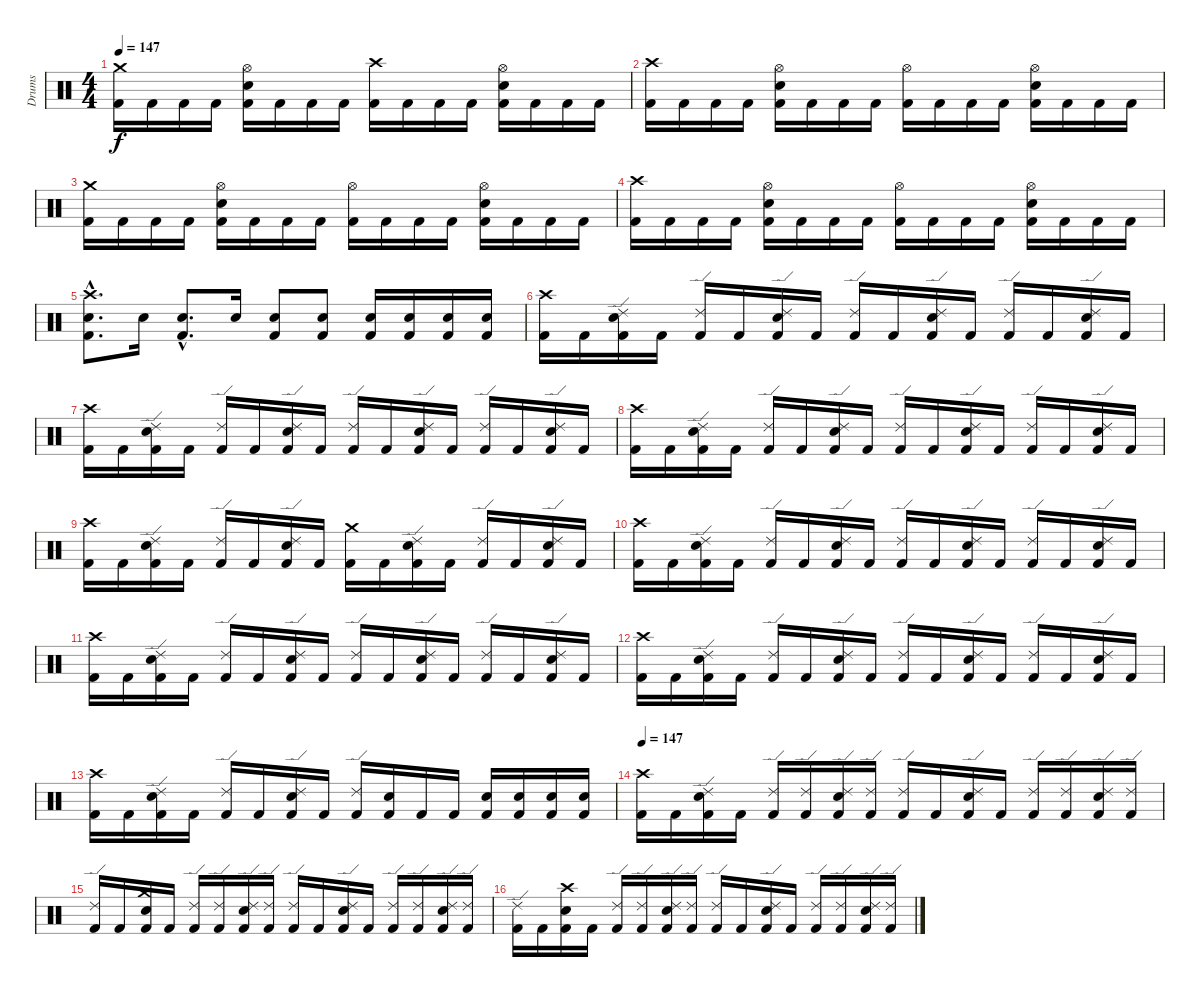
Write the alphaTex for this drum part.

\track ("Drums" "Drums") {instrument percussion}
\staff {score}
\articulation defaults
\ts (4 4)
\tempo 147
\clef neutral
\ks c
("Kick (hit) 2" "Crash medium (hit)").16{dy f} "Kick (hit) 2".16 "Kick (hit) 2".16 "Kick (hit) 2".16 ("Kick (hit) 2" "Electric Snare (hit)" "Hi-Hat (open)").16 "Kick (hit) 2".16 "Kick (hit) 2".16 "Kick (hit) 2".16 ("Kick (hit) 2" "Crash high (hit)").16 "Kick (hit) 2".16 "Kick (hit) 2".16 "Kick (hit) 2".16 ("Kick (hit) 2" "Electric Snare (hit)" "Hi-Hat (open)").16 "Kick (hit) 2".16 "Kick (hit) 2".16 "Kick (hit) 2".16 |
("Kick (hit) 2" "Crash high (hit)").16 "Kick (hit) 2".16 "Kick (hit) 2".16 "Kick (hit) 2".16 ("Kick (hit) 2" "Electric Snare (hit)" "Hi-Hat (open)").16 "Kick (hit) 2".16 "Kick (hit) 2".16 "Kick (hit) 2".16 ("Kick (hit) 2" "Hi-Hat (open)").16 "Kick (hit) 2".16 "Kick (hit) 2".16 "Kick (hit) 2".16 ("Kick (hit) 2" "Electric Snare (hit)" "Hi-Hat (open)").16 "Kick (hit) 2".16 "Kick (hit) 2".16 "Kick (hit) 2".16 |
("Kick (hit) 2" "Crash medium (hit)").16 "Kick (hit) 2".16 "Kick (hit) 2".16 "Kick (hit) 2".16 ("Kick (hit) 2" "Electric Snare (hit)" "Hi-Hat (open)").16 "Kick (hit) 2".16 "Kick (hit) 2".16 "Kick (hit) 2".16 ("Kick (hit) 2" "Hi-Hat (open)").16 "Kick (hit) 2".16 "Kick (hit) 2".16 "Kick (hit) 2".16 ("Kick (hit) 2" "Electric Snare (hit)" "Hi-Hat (open)").16 "Kick (hit) 2".16 "Kick (hit) 2".16 "Kick (hit) 2".16 |
("Kick (hit) 2" "Crash high (hit)").16 "Kick (hit) 2".16 "Kick (hit) 2".16 "Kick (hit) 2".16 ("Kick (hit) 2" "Electric Snare (hit)" "Hi-Hat (open)").16 "Kick (hit) 2".16 "Kick (hit) 2".16 "Kick (hit) 2".16 ("Kick (hit) 2" "Hi-Hat (open)").16 "Kick (hit) 2".16 "Kick (hit) 2".16 "Kick (hit) 2".16 ("Kick (hit) 2" "Electric Snare (hit)" "Hi-Hat (open)").16 "Kick (hit) 2".16 "Kick (hit) 2".16 "Kick (hit) 2".16 |
("Kick (hit) 2"{hac} "Electric Snare (hit)"{hac} "Crash high (hit)"{hac}).8{d} "Electric Snare (hit)".16 ("Kick (hit) 2"{hac} "Electric Snare (hit)"{hac}).8{d} "Electric Snare (hit)".16 ("Kick (hit) 2" "Electric Snare (hit)").8 ("Kick (hit) 2" "Electric Snare (hit)").8 ("Kick (hit) 2" "Electric Snare (hit)").16 ("Kick (hit) 2" "Electric Snare (hit)").16 ("Kick (hit) 2" "Electric Snare (hit)").16 ("Kick (hit) 2" "Electric Snare (hit)").16 |
("Kick (hit) 2" "Crash high (hit)").16 "Kick (hit) 2".16 ("Kick (hit) 2" "Electric Snare (hit)" "Ride (edge) 2").16 "Kick (hit) 2".16 ("Kick (hit) 2" "Ride (edge) 2").16 "Kick (hit) 2".16 ("Kick (hit) 2" "Electric Snare (hit)" "Ride (edge) 2").16 "Kick (hit) 2".16 ("Kick (hit) 2" "Ride (edge) 2").16 "Kick (hit) 2".16 ("Kick (hit) 2" "Electric Snare (hit)" "Ride (edge) 2").16 "Kick (hit) 2".16 ("Kick (hit) 2" "Ride (edge) 2").16 "Kick (hit) 2".16 ("Kick (hit) 2" "Electric Snare (hit)" "Ride (edge) 2").16 "Kick (hit) 2".16 |
("Kick (hit) 2" "Crash high (hit)").16 "Kick (hit) 2".16 ("Kick (hit) 2" "Electric Snare (hit)" "Ride (edge) 2").16 "Kick (hit) 2".16 ("Kick (hit) 2" "Ride (edge) 2").16 "Kick (hit) 2".16 ("Kick (hit) 2" "Electric Snare (hit)" "Ride (edge) 2").16 "Kick (hit) 2".16 ("Kick (hit) 2" "Ride (edge) 2").16 "Kick (hit) 2".16 ("Kick (hit) 2" "Electric Snare (hit)" "Ride (edge) 2").16 "Kick (hit) 2".16 ("Kick (hit) 2" "Ride (edge) 2").16 "Kick (hit) 2".16 ("Kick (hit) 2" "Electric Snare (hit)" "Ride (edge) 2").16 "Kick (hit) 2".16 |
("Kick (hit) 2" "Crash high (hit)").16 "Kick (hit) 2".16 ("Kick (hit) 2" "Electric Snare (hit)" "Ride (edge) 2").16 "Kick (hit) 2".16 ("Kick (hit) 2" "Ride (edge) 2").16 "Kick (hit) 2".16 ("Kick (hit) 2" "Electric Snare (hit)" "Ride (edge) 2").16 "Kick (hit) 2".16 ("Kick (hit) 2" "Ride (edge) 2").16 "Kick (hit) 2".16 ("Kick (hit) 2" "Electric Snare (hit)" "Ride (edge) 2").16 "Kick (hit) 2".16 ("Kick (hit) 2" "Ride (edge) 2").16 "Kick (hit) 2".16 ("Kick (hit) 2" "Electric Snare (hit)" "Ride (edge) 2").16 "Kick (hit) 2".16 |
("Kick (hit) 2" "Crash high (hit)").16 "Kick (hit) 2".16 ("Kick (hit) 2" "Electric Snare (hit)" "Ride (edge) 2").16 "Kick (hit) 2".16 ("Kick (hit) 2" "Ride (edge) 2").16 "Kick (hit) 2".16 ("Kick (hit) 2" "Electric Snare (hit)" "Ride (edge) 2").16 "Kick (hit) 2".16 ("Kick (hit) 2" "Crash medium (hit)").16 "Kick (hit) 2".16 ("Kick (hit) 2" "Electric Snare (hit)" "Ride (edge) 2").16 "Kick (hit) 2".16 ("Kick (hit) 2" "Ride (edge) 2").16 "Kick (hit) 2".16 ("Kick (hit) 2" "Electric Snare (hit)" "Ride (edge) 2").16 "Kick (hit) 2".16 |
("Kick (hit) 2" "Crash high (hit)").16 "Kick (hit) 2".16 ("Kick (hit) 2" "Electric Snare (hit)" "Ride (edge) 2").16 "Kick (hit) 2".16 ("Kick (hit) 2" "Ride (edge) 2").16 "Kick (hit) 2".16 ("Kick (hit) 2" "Electric Snare (hit)" "Ride (edge) 2").16 "Kick (hit) 2".16 ("Kick (hit) 2" "Ride (edge) 2").16 "Kick (hit) 2".16 ("Kick (hit) 2" "Electric Snare (hit)" "Ride (edge) 2").16 "Kick (hit) 2".16 ("Kick (hit) 2" "Ride (edge) 2").16 "Kick (hit) 2".16 ("Kick (hit) 2" "Electric Snare (hit)" "Ride (edge) 2").16 "Kick (hit) 2".16 |
("Kick (hit) 2" "Crash high (hit)").16 "Kick (hit) 2".16 ("Kick (hit) 2" "Electric Snare (hit)" "Ride (edge) 2").16 "Kick (hit) 2".16 ("Kick (hit) 2" "Ride (edge) 2").16 "Kick (hit) 2".16 ("Kick (hit) 2" "Electric Snare (hit)" "Ride (edge) 2").16 "Kick (hit) 2".16 ("Kick (hit) 2" "Ride (edge) 2").16 "Kick (hit) 2".16 ("Kick (hit) 2" "Electric Snare (hit)" "Ride (edge) 2").16 "Kick (hit) 2".16 ("Kick (hit) 2" "Ride (edge) 2").16 "Kick (hit) 2".16 ("Kick (hit) 2" "Electric Snare (hit)" "Ride (edge) 2").16 "Kick (hit) 2".16 |
("Kick (hit) 2" "Crash high (hit)").16 "Kick (hit) 2".16 ("Kick (hit) 2" "Electric Snare (hit)" "Ride (edge) 2").16 "Kick (hit) 2".16 ("Kick (hit) 2" "Ride (edge) 2").16 "Kick (hit) 2".16 ("Kick (hit) 2" "Electric Snare (hit)" "Ride (edge) 2").16 "Kick (hit) 2".16 ("Kick (hit) 2" "Ride (edge) 2").16 "Kick (hit) 2".16 ("Kick (hit) 2" "Electric Snare (hit)" "Ride (edge) 2").16 "Kick (hit) 2".16 ("Kick (hit) 2" "Ride (edge) 2").16 "Kick (hit) 2".16 ("Kick (hit) 2" "Electric Snare (hit)" "Ride (edge) 2").16 "Kick (hit) 2".16 |
("Kick (hit) 2" "Crash high (hit)").16 "Kick (hit) 2".16 ("Kick (hit) 2" "Electric Snare (hit)" "Ride (edge) 2").16 "Kick (hit) 2".16 ("Kick (hit) 2" "Ride (edge) 2").16 "Kick (hit) 2".16 ("Kick (hit) 2" "Electric Snare (hit)" "Ride (edge) 2").16 "Kick (hit) 2".16 ("Kick (hit) 2" "Ride (edge) 2").16 ("Kick (hit) 2" "Electric Snare (hit)").16 "Kick (hit) 2".16 "Kick (hit) 2".16 ("Kick (hit) 2" "Electric Snare (hit)").16 ("Kick (hit) 2" "Electric Snare (hit)").16 ("Kick (hit) 2" "Electric Snare (hit)").16 ("Kick (hit) 2" "Electric Snare (hit)").16 |
\tempo 147
("Kick (hit) 2" "Crash high (hit)").16 "Kick (hit) 2".16 ("Kick (hit) 2" "Electric Snare (hit)" "Ride (edge) 2").16 "Kick (hit) 2".16 ("Kick (hit) 2" "Ride (edge) 2").16 ("Kick (hit) 2" "Ride (edge) 2").16 ("Kick (hit) 2" "Electric Snare (hit)" "Ride (edge) 2").16 ("Kick (hit) 2" "Ride (edge) 2").16 ("Kick (hit) 2" "Ride (edge) 2").16 "Kick (hit) 2".16 ("Kick (hit) 2" "Electric Snare (hit)" "Ride (edge) 2").16 "Kick (hit) 2".16 ("Kick (hit) 2" "Ride (edge) 2").16 ("Kick (hit) 2" "Ride (edge) 2").16 ("Kick (hit) 2" "Electric Snare (hit)" "Ride (edge) 2").16 ("Kick (hit) 2" "Ride (edge) 2").16 |
("Kick (hit) 2" "Ride (edge) 2").16 "Kick (hit) 2".16 ("Kick (hit) 2" "Electric Snare (hit)" "Crash medium (hit)").16 "Kick (hit) 2".16 ("Kick (hit) 2" "Ride (edge) 2").16 ("Kick (hit) 2" "Ride (edge) 2").16 ("Kick (hit) 2" "Electric Snare (hit)" "Ride (edge) 2").16 ("Kick (hit) 2" "Ride (edge) 2").16 ("Kick (hit) 2" "Ride (edge) 2").16 "Kick (hit) 2".16 ("Kick (hit) 2" "Electric Snare (hit)" "Ride (edge) 2").16 "Kick (hit) 2".16 ("Kick (hit) 2" "Ride (edge) 2").16 ("Kick (hit) 2" "Ride (edge) 2").16 ("Kick (hit) 2" "Electric Snare (hit)" "Ride (edge) 2").16 ("Kick (hit) 2" "Ride (edge) 2").16 |
("Kick (hit) 2" "Ride (edge) 2").16 "Kick (hit) 2".16 ("Kick (hit) 2" "Electric Snare (hit)" "Crash high (hit)").16 "Kick (hit) 2".16 ("Kick (hit) 2" "Ride (edge) 2").16 ("Kick (hit) 2" "Ride (edge) 2").16 ("Kick (hit) 2" "Electric Snare (hit)" "Ride (edge) 2").16 ("Kick (hit) 2" "Ride (edge) 2").16 ("Kick (hit) 2" "Ride (edge) 2").16 "Kick (hit) 2".16 ("Kick (hit) 2" "Electric Snare (hit)" "Ride (edge) 2").16 "Kick (hit) 2".16 ("Kick (hit) 2" "Ride (edge) 2").16 ("Kick (hit) 2" "Ride (edge) 2").16 ("Kick (hit) 2" "Electric Snare (hit)" "Ride (edge) 2").16 ("Kick (hit) 2" "Ride (edge) 2").16
